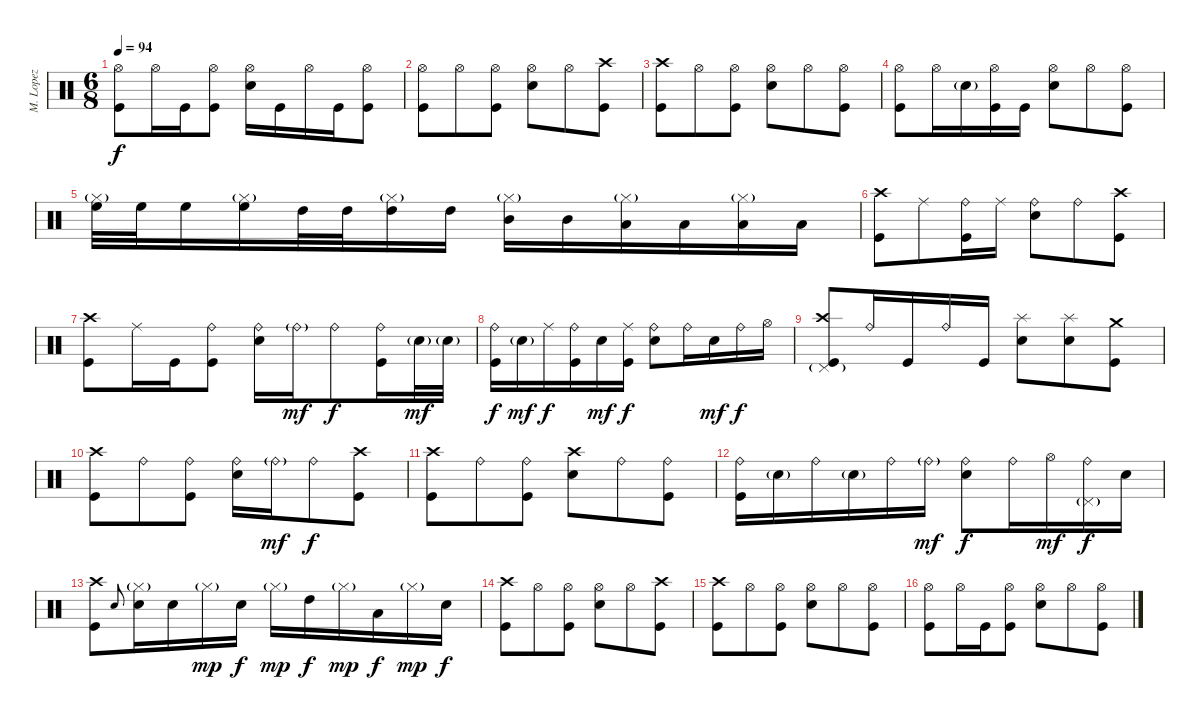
\track ("M. Lopez" "M. Lopez") {instrument percussion}
\staff {score}
\articulation defaults
\ts (6 8)
\tempo 94
\clef neutral
\ks c
("Hi-Hat (open)" "Kick (hit)").8{dy f} "Hi-Hat (open)".16 "Kick (hit)".16 ("Hi-Hat (open)" "Kick (hit)").8 ("Hi-Hat (open)" "Electric Snare (hit)").16 "Kick (hit)".16 "Hi-Hat (open)".16 "Kick (hit)".16 ("Hi-Hat (open)" "Kick (hit)").8 |
("Hi-Hat (open)" "Kick (hit)").8 "Hi-Hat (open)".8 ("Hi-Hat (open)" "Kick (hit)").8 ("Hi-Hat (open)" "Electric Snare (hit)").8 "Hi-Hat (open)".8 ("Crash high (hit)" "Kick (hit)").8 |
("Crash high (hit)" "Kick (hit)").8 "Hi-Hat (open)".8 ("Hi-Hat (open)" "Kick (hit)").8 ("Hi-Hat (open)" "Electric Snare (hit)").8 "Hi-Hat (open)".8 ("Hi-Hat (open)" "Kick (hit)").8 |
("Hi-Hat (open)" "Kick (hit)").8 "Hi-Hat (open)".16 "Electric Snare (hit)"{g}.16 ("Hi-Hat (open)" "Kick (hit)").16 "Kick (hit)".16 ("Hi-Hat (open)" "Electric Snare (hit)").8 "Hi-Hat (open)".8 ("Hi-Hat (open)" "Kick (hit)").8 |
("Hi-Hat (closed)"{g} "High Floor Tom (hit)").32 "High Floor Tom (hit)".32 "High Floor Tom (hit)".16 ("Hi-Hat (closed)"{g} "High Floor Tom (hit)").16 "High Tom (hit)".32 "High Tom (hit)".32 ("Hi-Hat (closed)"{g} "High Tom (hit)").16 "High Tom (hit)".16 ("Hi-Hat (closed)"{g} "Mid Tom (hit)").16 "Mid Tom (hit)".16 ("Hi-Hat (closed)"{g} "Low Tom (hit)").16 "Low Tom (hit)".16 ("Hi-Hat (closed)"{g} "Low Floor Tom (hit)").16 "Low Floor Tom (hit)".16 |
("Crash high (hit)" "Kick (hit)").8 "Ride (middle)".8 ("Ride (bell)" "Kick (hit)").16 "Ride (middle)".16 ("Ride (bell)" "Electric Snare (hit)").8 "Ride (bell)".8 ("Crash high (hit)" "Kick (hit)").8 |
("Crash high (hit)" "Kick (hit)").8 "Ride (middle)".16 "Kick (hit)".16 ("Ride (bell)" "Kick (hit)").8 ("Ride (bell)" "Electric Snare (hit)").16 "Ride (bell)"{g}.16{dy mf} "Ride (bell)".8{dy f} ("Ride (bell)" "Kick (hit)").16 "Electric Snare (hit)"{g}.32{dy mf} "Electric Snare (hit)"{g}.32 |
("Ride (bell)" "Kick (hit)").16{dy f} "Electric Snare (hit)"{g}.16{dy mf} "Ride (middle)".16{dy f} ("Ride (bell)" "Kick (hit)").16 "Electric Snare (hit)".16{dy mf} ("Ride (middle)" "Kick (hit)").16{dy f} ("Ride (bell)" "Electric Snare (hit)").8 "Ride (bell)".16 "Electric Snare (hit)".16{dy mf} "Ride (bell)".16{dy f} "Hi-Hat (open)".16 |
("Crash high (hit)" "Pedal Hi-Hat (hit)"{g} "Kick (hit)").8 "Ride (bell)".16 "Kick (hit)".16 "Ride (bell)".16 "Kick (hit)".16 ("Splash (hit)" "Electric Snare (hit)").8 ("Splash (hit)" "Electric Snare (hit)").8 ("Crash medium (hit)" "Kick (hit)").8 |
("Crash high (hit)" "Kick (hit)").8 "Ride (bell)".8 ("Ride (bell)" "Kick (hit)").8 ("Ride (bell)" "Electric Snare (hit)").16 "Ride (bell)"{g}.16{dy mf} "Ride (bell)".8{dy f} ("Crash high (hit)" "Kick (hit)").8 |
("Crash high (hit)" "Kick (hit)").8 "Ride (bell)".8 ("Ride (bell)" "Kick (hit)").8 ("Crash high (hit)" "Electric Snare (hit)").8 "Ride (bell)".8 ("Ride (bell)" "Kick (hit)").8 |
("Ride (bell)" "Kick (hit)").16 "Electric Snare (hit)"{g}.16 "Ride (bell)".16 "Electric Snare (hit)"{g}.16 "Ride (bell)".16 "Ride (bell)"{g}.16{dy mf} ("Ride (bell)" "Electric Snare (hit)").8{dy f} "Ride (bell)".16 "Hi-Hat (open)".16{dy mf} ("Pedal Hi-Hat (hit)"{g} "Ride (bell)").16{dy f} "Electric Snare (hit)".16 |
("Crash high (hit)" "Kick (hit)").8 "Electric Snare (hit)".8{gr onbeat} ("Hi-Hat (closed)"{g} "Electric Snare (hit)").16 "Electric Snare (hit)".16 "Hi-Hat (closed)"{g}.16{dy mp} "Electric Snare (hit)".16{dy f} "Hi-Hat (closed)"{g}.16{dy mp} "High Tom (hit)".16{dy f} "Hi-Hat (closed)"{g}.16{dy mp} "Low Tom (hit)".16{dy f} "Hi-Hat (closed)"{g}.16{dy mp} "Electric Snare (hit)".16{dy f} |
("Crash high (hit)" "Kick (hit)").8 "Hi-Hat (open)".8 ("Hi-Hat (open)" "Kick (hit)").8 ("Hi-Hat (open)" "Electric Snare (hit)").8 "Hi-Hat (open)".8 ("Crash high (hit)" "Kick (hit)").8 |
("Crash high (hit)" "Kick (hit)").8 "Hi-Hat (open)".8 ("Hi-Hat (open)" "Kick (hit)").8 ("Hi-Hat (open)" "Electric Snare (hit)").8 "Hi-Hat (open)".8 ("Hi-Hat (open)" "Kick (hit)").8 |
("Hi-Hat (open)" "Kick (hit)").8 "Hi-Hat (open)".16 "Kick (hit)".16 ("Hi-Hat (open)" "Kick (hit)").8 ("Hi-Hat (open)" "Electric Snare (hit)").8 "Hi-Hat (open)".8 ("Hi-Hat (open)" "Kick (hit)").8
